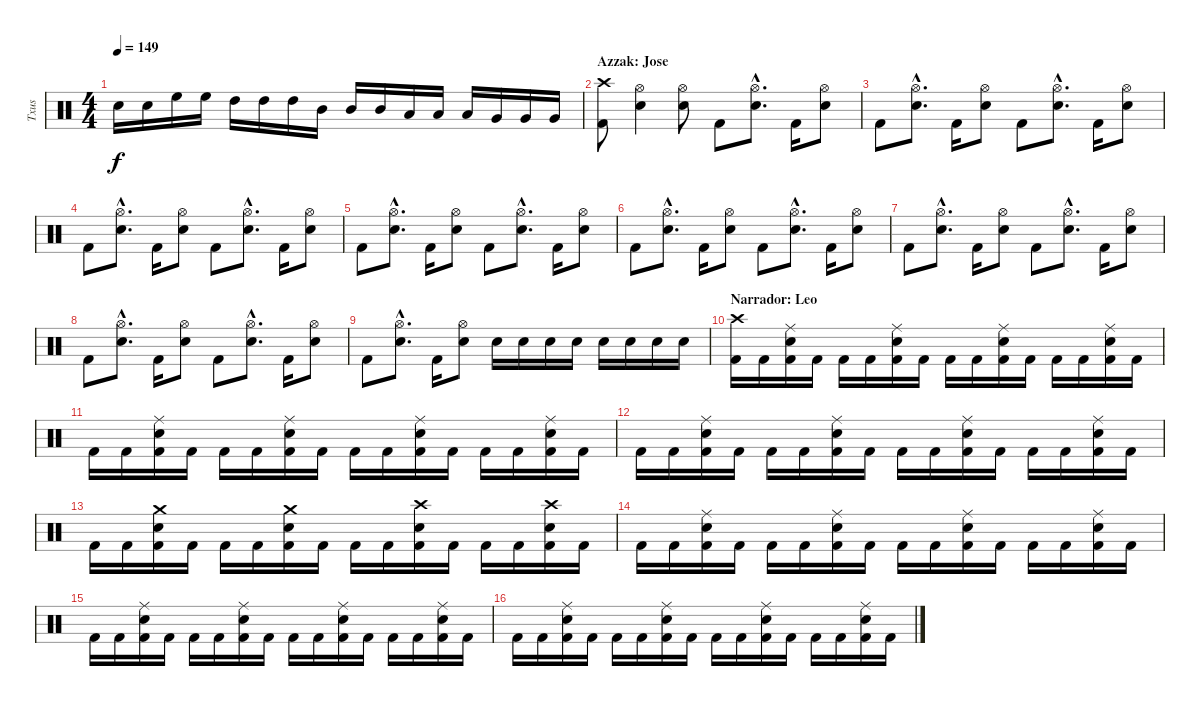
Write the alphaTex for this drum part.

\track ("Txus" "Txus") {instrument percussion}
\staff {score}
\articulation defaults
\ts (4 4)
\tempo 149
\clef neutral
\ks c "Electric Snare (hit)".16{dy f} "Electric Snare (hit)".16 "High Floor Tom (hit)".16 "High Floor Tom (hit)".16 "High Tom (hit)".16 "High Tom (hit)".16 "High Tom (hit)".16 "Mid Tom (hit)".16 "Mid Tom (hit)".16 "Mid Tom (hit)".16 "Low Tom (hit)".16 "Low Tom (hit)".16 "Low Tom (hit)".16 "Very Low Tom (hit)".16 "Very Low Tom (hit)".16 "Very Low Tom (hit)".16
|
\section ("" "Azzak: Jose")
("Kick (hit) 2" "Crash high (hit)").8 ("Electric Snare (hit)" "Hi-Hat (open)").4 ("Electric Snare (hit)" "Hi-Hat (open)").8 "Kick (hit) 2".8 ("Electric Snare (hit)"{hac} "Hi-Hat (open)"{hac}).8{d} "Kick (hit) 2".16 ("Electric Snare (hit)" "Hi-Hat (open)").8 |
"Kick (hit) 2".8 ("Electric Snare (hit)"{hac} "Hi-Hat (open)"{hac}).8{d} "Kick (hit) 2".16 ("Electric Snare (hit)" "Hi-Hat (open)").8 "Kick (hit) 2".8 ("Electric Snare (hit)"{hac} "Hi-Hat (open)"{hac}).8{d} "Kick (hit) 2".16 ("Electric Snare (hit)" "Hi-Hat (open)").8 |
"Kick (hit) 2".8 ("Electric Snare (hit)"{hac} "Hi-Hat (open)"{hac}).8{d} "Kick (hit) 2".16 ("Electric Snare (hit)" "Hi-Hat (open)").8 "Kick (hit) 2".8 ("Electric Snare (hit)"{hac} "Hi-Hat (open)"{hac}).8{d} "Kick (hit) 2".16 ("Electric Snare (hit)" "Hi-Hat (open)").8 |
"Kick (hit) 2".8 ("Electric Snare (hit)"{hac} "Hi-Hat (open)"{hac}).8{d} "Kick (hit) 2".16 ("Electric Snare (hit)" "Hi-Hat (open)").8 "Kick (hit) 2".8 ("Electric Snare (hit)"{hac} "Hi-Hat (open)"{hac}).8{d} "Kick (hit) 2".16 ("Electric Snare (hit)" "Hi-Hat (open)").8 |
"Kick (hit) 2".8 ("Electric Snare (hit)"{hac} "Hi-Hat (open)"{hac}).8{d} "Kick (hit) 2".16 ("Electric Snare (hit)" "Hi-Hat (open)").8 "Kick (hit) 2".8 ("Electric Snare (hit)"{hac} "Hi-Hat (open)"{hac}).8{d} "Kick (hit) 2".16 ("Electric Snare (hit)" "Hi-Hat (open)").8 |
"Kick (hit) 2".8 ("Electric Snare (hit)"{hac} "Hi-Hat (open)"{hac}).8{d} "Kick (hit) 2".16 ("Electric Snare (hit)" "Hi-Hat (open)").8 "Kick (hit) 2".8 ("Electric Snare (hit)"{hac} "Hi-Hat (open)"{hac}).8{d} "Kick (hit) 2".16 ("Electric Snare (hit)" "Hi-Hat (open)").8 |
"Kick (hit) 2".8 ("Electric Snare (hit)"{hac} "Hi-Hat (open)"{hac}).8{d} "Kick (hit) 2".16 ("Electric Snare (hit)" "Hi-Hat (open)").8 "Kick (hit) 2".8 ("Electric Snare (hit)"{hac} "Hi-Hat (open)"{hac}).8{d} "Kick (hit) 2".16 ("Electric Snare (hit)" "Hi-Hat (open)").8 |
"Kick (hit) 2".8 ("Electric Snare (hit)"{hac} "Hi-Hat (open)"{hac}).8{d} "Kick (hit) 2".16 ("Electric Snare (hit)" "Hi-Hat (open)").8 "Electric Snare (hit)".16 "Electric Snare (hit)".16 "Electric Snare (hit)".16 "Electric Snare (hit)".16 "Electric Snare (hit)".16 "Electric Snare (hit)".16 "Electric Snare (hit)".16 "Electric Snare (hit)".16 |
\section ("" "Narrador: Leo")
("Kick (hit) 2" "Crash high (hit)").16 "Kick (hit) 2".16 ("Kick (hit) 2" "Electric Snare (hit)" "Ride (middle)").16 "Kick (hit) 2".16 "Kick (hit) 2".16 "Kick (hit) 2".16 ("Kick (hit) 2" "Electric Snare (hit)" "Ride (middle)").16 "Kick (hit) 2".16 "Kick (hit) 2".16 "Kick (hit) 2".16 ("Kick (hit) 2" "Electric Snare (hit)" "Ride (middle)").16 "Kick (hit) 2".16 "Kick (hit) 2".16 "Kick (hit) 2".16 ("Kick (hit) 2" "Electric Snare (hit)" "Ride (middle)").16 "Kick (hit) 2".16 |
"Kick (hit) 2".16 "Kick (hit) 2".16 ("Kick (hit) 2" "Electric Snare (hit)" "Ride (middle)").16 "Kick (hit) 2".16 "Kick (hit) 2".16 "Kick (hit) 2".16 ("Kick (hit) 2" "Electric Snare (hit)" "Ride (middle)").16 "Kick (hit) 2".16 "Kick (hit) 2".16 "Kick (hit) 2".16 ("Kick (hit) 2" "Electric Snare (hit)" "Ride (middle)").16 "Kick (hit) 2".16 "Kick (hit) 2".16 "Kick (hit) 2".16 ("Kick (hit) 2" "Electric Snare (hit)" "Ride (middle)").16 "Kick (hit) 2".16 |
"Kick (hit) 2".16 "Kick (hit) 2".16 ("Kick (hit) 2" "Electric Snare (hit)" "Ride (middle)").16 "Kick (hit) 2".16 "Kick (hit) 2".16 "Kick (hit) 2".16 ("Kick (hit) 2" "Electric Snare (hit)" "Ride (middle)").16 "Kick (hit) 2".16 "Kick (hit) 2".16 "Kick (hit) 2".16 ("Kick (hit) 2" "Electric Snare (hit)" "Ride (middle)").16 "Kick (hit) 2".16 "Kick (hit) 2".16 "Kick (hit) 2".16 ("Kick (hit) 2" "Electric Snare (hit)" "Ride (middle)").16 "Kick (hit) 2".16 |
"Kick (hit) 2".16 "Kick (hit) 2".16 ("Kick (hit) 2" "Electric Snare (hit)" "Crash medium (hit)").16 "Kick (hit) 2".16 "Kick (hit) 2".16 "Kick (hit) 2".16 ("Kick (hit) 2" "Electric Snare (hit)" "Crash medium (hit)").16 "Kick (hit) 2".16 "Kick (hit) 2".16 "Kick (hit) 2".16 ("Kick (hit) 2" "Electric Snare (hit)" "Crash high (hit)").16 "Kick (hit) 2".16 "Kick (hit) 2".16 "Kick (hit) 2".16 ("Kick (hit) 2" "Electric Snare (hit)" "Crash high (hit)").16 "Kick (hit) 2".16 |
"Kick (hit) 2".16 "Kick (hit) 2".16 ("Kick (hit) 2" "Electric Snare (hit)" "Ride (middle)").16 "Kick (hit) 2".16 "Kick (hit) 2".16 "Kick (hit) 2".16 ("Kick (hit) 2" "Electric Snare (hit)" "Ride (middle)").16 "Kick (hit) 2".16 "Kick (hit) 2".16 "Kick (hit) 2".16 ("Kick (hit) 2" "Electric Snare (hit)" "Ride (middle)").16 "Kick (hit) 2".16 "Kick (hit) 2".16 "Kick (hit) 2".16 ("Kick (hit) 2" "Electric Snare (hit)" "Ride (middle)").16 "Kick (hit) 2".16 |
"Kick (hit) 2".16 "Kick (hit) 2".16 ("Kick (hit) 2" "Electric Snare (hit)" "Ride (middle)").16 "Kick (hit) 2".16 "Kick (hit) 2".16 "Kick (hit) 2".16 ("Kick (hit) 2" "Electric Snare (hit)" "Ride (middle)").16 "Kick (hit) 2".16 "Kick (hit) 2".16 "Kick (hit) 2".16 ("Kick (hit) 2" "Electric Snare (hit)" "Ride (middle)").16 "Kick (hit) 2".16 "Kick (hit) 2".16 "Kick (hit) 2".16 ("Kick (hit) 2" "Electric Snare (hit)" "Ride (middle)").16 "Kick (hit) 2".16 |
"Kick (hit) 2".16 "Kick (hit) 2".16 ("Kick (hit) 2" "Electric Snare (hit)" "Ride (middle)").16 "Kick (hit) 2".16 "Kick (hit) 2".16 "Kick (hit) 2".16 ("Kick (hit) 2" "Electric Snare (hit)" "Ride (middle)").16 "Kick (hit) 2".16 "Kick (hit) 2".16 "Kick (hit) 2".16 ("Kick (hit) 2" "Electric Snare (hit)" "Ride (middle)").16 "Kick (hit) 2".16 "Kick (hit) 2".16 "Kick (hit) 2".16 ("Kick (hit) 2" "Electric Snare (hit)" "Ride (middle)").16 "Kick (hit) 2".16
